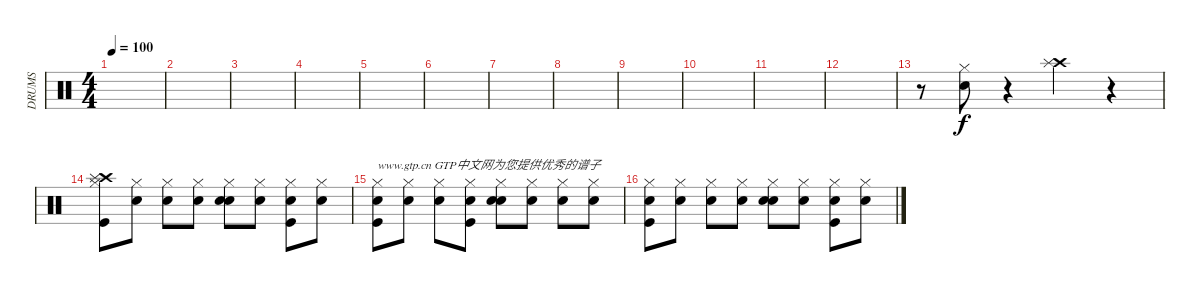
\track ("DRUMS" "DRUMS") {instrument percussion}
\staff {score}
\articulation defaults
\ts (4 4)
\tempo 100
\clef neutral
\ks c
|
|
|
|
|
|
|
|
|
|
|
|
r.8 ("Snare (hit) 2" "Hi-Hat (closed)").8 r.4 ("Crash high (hit)" "Splash (hit)").4 r.4 |
("Kick (hit)" "Crash high (hit)" "Splash (hit)" "Hi-Hat (closed)").8 ("Snare (hit)" "Hi-Hat (closed)").8 ("Snare (hit)" "Hi-Hat (closed)").8 ("Snare (hit)" "Hi-Hat (closed)").8 ("Snare (hit)" "Snare (hit) 2" "Hi-Hat (closed)").8 ("Snare (hit)" "Hi-Hat (closed)").8 ("Snare (hit)" "Kick (hit)" "Hi-Hat (closed)").8 ("Snare (hit)" "Hi-Hat (closed)").8 |
("Snare (hit)" "Kick (hit)" "Hi-Hat (closed)").8{txt "www.gtp.cn GTP中文网为您提供优秀的谱子"} ("Snare (hit)" "Hi-Hat (closed)").8 ("Snare (hit)" "Hi-Hat (closed)").8 ("Snare (hit)" "Kick (hit)" "Hi-Hat (closed)").8 ("Snare (hit)" "Snare (hit) 2" "Hi-Hat (closed)").8 ("Snare (hit)" "Hi-Hat (closed)").8 ("Snare (hit)" "Hi-Hat (closed)").8 ("Snare (hit)" "Hi-Hat (closed)").8 |
("Snare (hit)" "Kick (hit)" "Hi-Hat (closed)").8 ("Snare (hit)" "Hi-Hat (closed)").8 ("Snare (hit)" "Hi-Hat (closed)").8 ("Snare (hit)" "Hi-Hat (closed)").8 ("Snare (hit)" "Snare (hit) 2" "Hi-Hat (closed)").8 ("Snare (hit)" "Hi-Hat (closed)").8 ("Snare (hit)" "Kick (hit)" "Hi-Hat (closed)").8 ("Snare (hit)" "Hi-Hat (closed)").8
